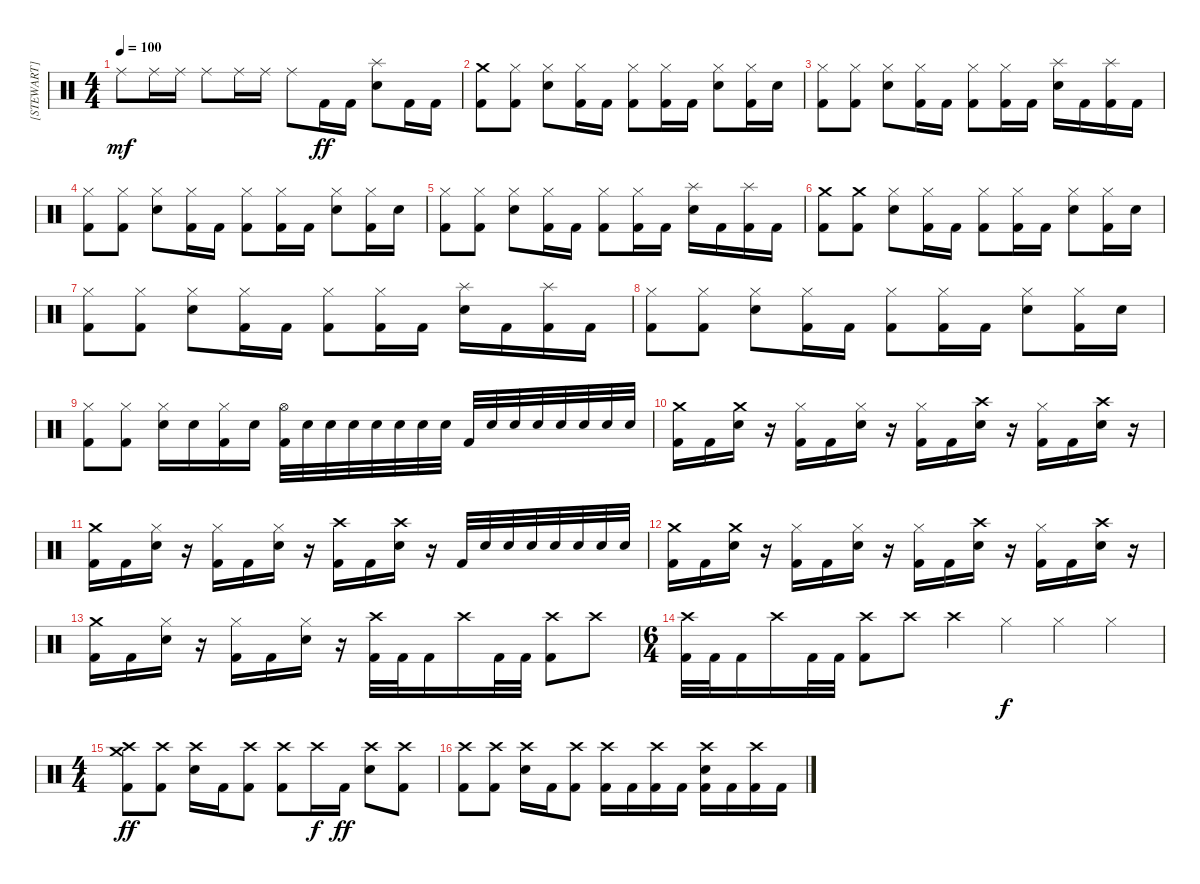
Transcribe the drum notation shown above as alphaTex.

\track ("[STEWART]" "[STEWART]") {instrument percussion}
\staff {score}
\articulation defaults
\ts (4 4)
\tempo 100
\clef neutral
\ks c "Ride (middle)".8{dy mf} "Ride (middle)".16 "Ride (middle)".16 "Ride (middle)".8 "Ride (middle)".16 "Ride (middle)".16 "Ride (middle)".8 "Kick (hit) 2".16{dy ff} "Kick (hit) 2".16
("Splash (hit)" "Electric Snare (hit)").8 "Kick (hit) 2".16 "Kick (hit) 2".16 |
("Crash medium (hit)" "Kick (hit) 2").8 ("Hi-Hat (closed)" "Kick (hit) 2").8 ("Hi-Hat (closed)" "Electric Snare (hit)").8 ("Hi-Hat (closed)" "Kick (hit) 2").16 "Kick (hit) 2".16 ("Hi-Hat (closed)" "Kick (hit) 2").8 ("Hi-Hat (closed)" "Kick (hit) 2").16 "Kick (hit) 2".16 ("Hi-Hat (closed)" "Electric Snare (hit)").8 ("Hi-Hat (closed)" "Kick (hit) 2").16 "Electric Snare (hit)".16 |
("Hi-Hat (closed)" "Kick (hit) 2").8 ("Hi-Hat (closed)" "Kick (hit) 2").8 ("Hi-Hat (closed)" "Electric Snare (hit)").8 ("Hi-Hat (closed)" "Kick (hit) 2").16 "Kick (hit) 2".16 ("Hi-Hat (closed)" "Kick (hit) 2").8 ("Hi-Hat (closed)" "Kick (hit) 2").16 "Kick (hit) 2".16 ("Splash (hit)" "Electric Snare (hit)").16 "Kick (hit) 2".16 ("Splash (hit)" "Kick (hit) 2").16 "Kick (hit) 2".16 |
("Hi-Hat (closed)" "Kick (hit) 2").8 ("Hi-Hat (closed)" "Kick (hit) 2").8 ("Hi-Hat (closed)" "Electric Snare (hit)").8 ("Hi-Hat (closed)" "Kick (hit) 2").16 "Kick (hit) 2".16 ("Hi-Hat (closed)" "Kick (hit) 2").8 ("Hi-Hat (closed)" "Kick (hit) 2").16 "Kick (hit) 2".16 ("Hi-Hat (closed)" "Electric Snare (hit)").8 ("Hi-Hat (closed)" "Kick (hit) 2").16 "Electric Snare (hit)".16 |
("Hi-Hat (closed)" "Kick (hit) 2").8 ("Hi-Hat (closed)" "Kick (hit) 2").8 ("Hi-Hat (closed)" "Electric Snare (hit)").8 ("Hi-Hat (closed)" "Kick (hit) 2").16 "Kick (hit) 2".16 ("Hi-Hat (closed)" "Kick (hit) 2").8 ("Hi-Hat (closed)" "Kick (hit) 2").16 "Kick (hit) 2".16 ("Splash (hit)" "Electric Snare (hit)").16 "Kick (hit) 2".16 ("Splash (hit)" "Kick (hit) 2").16 "Kick (hit) 2".16 |
("Crash medium (hit)" "Kick (hit) 2").8 ("Crash medium (hit)" "Kick (hit) 2").8 ("Hi-Hat (closed)" "Electric Snare (hit)").8 ("Hi-Hat (closed)" "Kick (hit) 2").16 "Kick (hit) 2".16 ("Hi-Hat (closed)" "Kick (hit) 2").8 ("Hi-Hat (closed)" "Kick (hit) 2").16 "Kick (hit) 2".16 ("Hi-Hat (closed)" "Electric Snare (hit)").8 ("Hi-Hat (closed)" "Kick (hit) 2").16 "Electric Snare (hit)".16 |
("Hi-Hat (closed)" "Kick (hit) 2").8 ("Hi-Hat (closed)" "Kick (hit) 2").8 ("Hi-Hat (closed)" "Electric Snare (hit)").8 ("Hi-Hat (closed)" "Kick (hit) 2").16 "Kick (hit) 2".16 ("Hi-Hat (closed)" "Kick (hit) 2").8 ("Hi-Hat (closed)" "Kick (hit) 2").16 "Kick (hit) 2".16 ("Splash (hit)" "Electric Snare (hit)").16 "Kick (hit) 2".16 ("Splash (hit)" "Kick (hit) 2").16 "Kick (hit) 2".16 |
("Hi-Hat (closed)" "Kick (hit) 2").8 ("Hi-Hat (closed)" "Kick (hit) 2").8 ("Hi-Hat (closed)" "Electric Snare (hit)").8 ("Hi-Hat (closed)" "Kick (hit) 2").16 "Kick (hit) 2".16 ("Hi-Hat (closed)" "Kick (hit) 2").8 ("Hi-Hat (closed)" "Kick (hit) 2").16 "Kick (hit) 2".16 ("Hi-Hat (closed)" "Electric Snare (hit)").8 ("Hi-Hat (closed)" "Kick (hit) 2").16 "Electric Snare (hit)".16 |
("Hi-Hat (closed)" "Kick (hit) 2").8 ("Hi-Hat (closed)" "Kick (hit) 2").8 ("Hi-Hat (closed)" "Electric Snare (hit)").16 "Electric Snare (hit)".16 ("Hi-Hat (closed)" "Kick (hit) 2").16 "Electric Snare (hit)".16 ("Hi-Hat (open)" "Kick (hit) 2").32 "Electric Snare (hit)".32 "Electric Snare (hit)".32 "Electric Snare (hit)".32 "Electric Snare (hit)".32 "Electric Snare (hit)".32 "Electric Snare (hit)".32 "Electric Snare (hit)".32 "Kick (hit) 2".32 "Electric Snare (hit)".32 "Electric Snare (hit)".32 "Electric Snare (hit)".32 "Electric Snare (hit)".32 "Electric Snare (hit)".32 "Electric Snare (hit)".32 "Electric Snare (hit)".32 |
("Crash medium (hit)" "Kick (hit) 2").16 "Kick (hit) 2".16 ("Crash medium (hit)" "Electric Snare (hit)").16 r.16 ("Hi-Hat (closed)" "Kick (hit) 2").16 "Kick (hit) 2".16 ("Hi-Hat (closed)" "Electric Snare (hit)").16 r.16 ("Hi-Hat (closed)" "Kick (hit) 2").16 "Kick (hit) 2".16 ("Crash high (hit)" "Electric Snare (hit)").16 r.16 ("Hi-Hat (closed)" "Kick (hit) 2").16 "Kick (hit) 2".16 ("Crash high (hit)" "Electric Snare (hit)").16 r.16 |
("Crash medium (hit)" "Kick (hit) 2").16 "Kick (hit) 2".16 ("Hi-Hat (closed)" "Electric Snare (hit)").16 r.16 ("Hi-Hat (closed)" "Kick (hit) 2").16 "Kick (hit) 2".16 ("Hi-Hat (closed)" "Electric Snare (hit)").16 r.16 ("Crash high (hit)" "Kick (hit) 2").16 "Kick (hit) 2".16 ("Crash high (hit)" "Electric Snare (hit)").16 r.16 "Kick (hit) 2".32 "Electric Snare (hit)".32 "Electric Snare (hit)".32 "Electric Snare (hit)".32 "Electric Snare (hit)".32 "Electric Snare (hit)".32 "Electric Snare (hit)".32 "Electric Snare (hit)".32 |
("Crash medium (hit)" "Kick (hit) 2").16 "Kick (hit) 2".16 ("Crash medium (hit)" "Electric Snare (hit)").16 r.16 ("Hi-Hat (closed)" "Kick (hit) 2").16 "Kick (hit) 2".16 ("Hi-Hat (closed)" "Electric Snare (hit)").16 r.16 ("Hi-Hat (closed)" "Kick (hit) 2").16 "Kick (hit) 2".16 ("Crash high (hit)" "Electric Snare (hit)").16 r.16 ("Hi-Hat (closed)" "Kick (hit) 2").16 "Kick (hit) 2".16 ("Crash high (hit)" "Electric Snare (hit)").16 r.16 |
("Crash medium (hit)" "Kick (hit) 2").16 "Kick (hit) 2".16 ("Hi-Hat (closed)" "Electric Snare (hit)").16 r.16 ("Hi-Hat (closed)" "Kick (hit) 2").16 "Kick (hit) 2".16 ("Hi-Hat (closed)" "Electric Snare (hit)").16 r.16 ("Crash high (hit)" "Kick (hit) 2").32 "Kick (hit) 2".32 "Kick (hit) 2".16 "Crash high (hit)".16 "Kick (hit) 2".32 "Kick (hit) 2".32 ("Crash high (hit)" "Kick (hit) 2").8 "Crash high (hit)".8 |
\ts (6 4)
("Crash high (hit)" "Kick (hit) 2").32 "Kick (hit) 2".32 "Kick (hit) 2".16 "Crash high (hit)".16 "Kick (hit) 2".32 "Kick (hit) 2".32 ("Crash high (hit)" "Kick (hit) 2").8 "Crash high (hit)".8 "Crash high (hit)".4 "Hi-Hat (closed)".4{dy f} "Hi-Hat (closed)".4 "Hi-Hat (closed)".4 |
\ts (4 4)
("Crash high (hit)" "Crash medium (hit)" "Kick (hit) 2").8{dy ff} ("Crash high (hit)" "Kick (hit) 2").8 ("Crash high (hit)" "Electric Snare (hit)").16 "Kick (hit) 2".16 ("Crash high (hit)" "Kick (hit) 2").8 ("Crash high (hit)" "Kick (hit) 2").8 "Crash high (hit)".16{dy f} "Kick (hit) 2".16{dy ff} ("Crash high (hit)" "Electric Snare (hit)").8 ("Crash high (hit)" "Kick (hit) 2").8 |
("Crash high (hit)" "Kick (hit) 2").8 ("Crash high (hit)" "Kick (hit) 2").8 ("Crash high (hit)" "Electric Snare (hit)").16 "Kick (hit) 2".16 ("Crash high (hit)" "Kick (hit) 2").8 ("Crash high (hit)" "Kick (hit) 2").16 "Kick (hit) 2".16 ("Crash high (hit)" "Kick (hit) 2").16 "Kick (hit) 2".16 ("Crash high (hit)" "Electric Snare (hit)" "Kick (hit) 2").16 "Kick (hit) 2".16 ("Crash high (hit)" "Kick (hit) 2").16 "Kick (hit) 2".16
